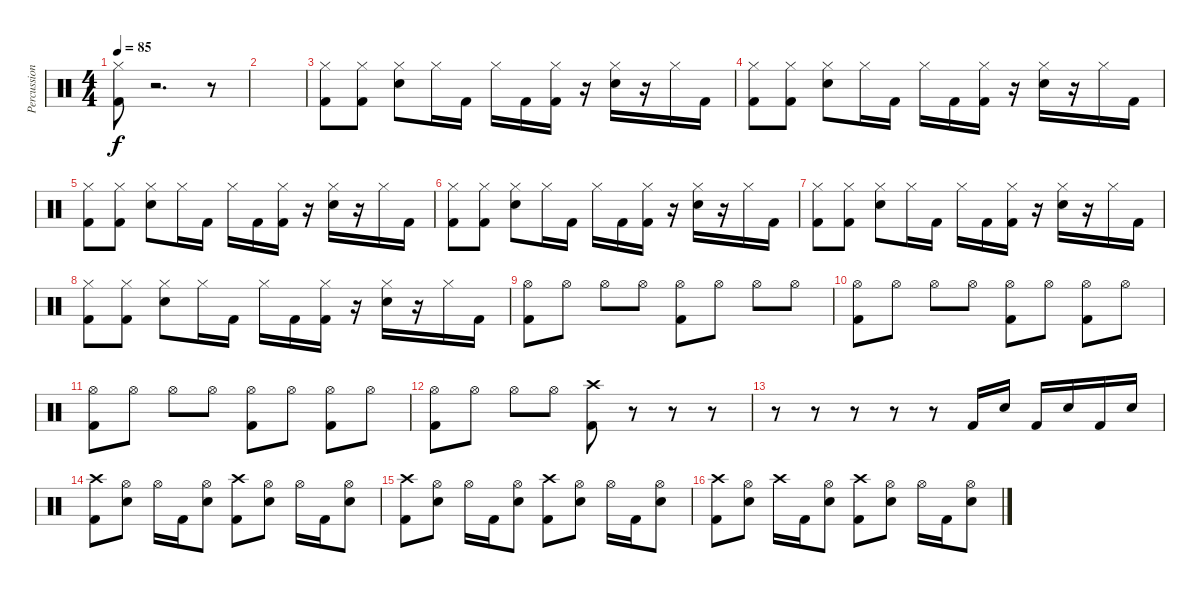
\track ("Percussion" "Percussion") {instrument percussion}
\staff {score}
\articulation defaults
\ts (4 4)
\tempo 85
\clef neutral
\ks c
("Hi-Hat (closed)" "Kick (hit) 2").8{dy f} r.2{d} r.8 |
|
("Hi-Hat (closed)" "Kick (hit) 2").8 ("Hi-Hat (closed)" "Kick (hit) 2").8 ("Hi-Hat (closed)" "Snare (hit) 2").8 "Hi-Hat (closed)".16 "Kick (hit) 2".16 "Hi-Hat (closed)".16 "Kick (hit) 2".16 ("Hi-Hat (closed)" "Kick (hit) 2").16 r.16 ("Hi-Hat (closed)" "Snare (hit) 2").16 r.16 "Hi-Hat (closed)".16 "Kick (hit) 2".16 |
("Hi-Hat (closed)" "Kick (hit) 2").8 ("Hi-Hat (closed)" "Kick (hit) 2").8 ("Hi-Hat (closed)" "Snare (hit) 2").8 "Hi-Hat (closed)".16 "Kick (hit) 2".16 "Hi-Hat (closed)".16 "Kick (hit) 2".16 ("Hi-Hat (closed)" "Kick (hit) 2").16 r.16 ("Hi-Hat (closed)" "Snare (hit) 2").16 r.16 "Hi-Hat (closed)".16 "Kick (hit) 2".16 |
("Hi-Hat (closed)" "Kick (hit) 2").8 ("Hi-Hat (closed)" "Kick (hit) 2").8 ("Hi-Hat (closed)" "Snare (hit) 2").8 "Hi-Hat (closed)".16 "Kick (hit) 2".16 "Hi-Hat (closed)".16 "Kick (hit) 2".16 ("Hi-Hat (closed)" "Kick (hit) 2").16 r.16 ("Hi-Hat (closed)" "Snare (hit) 2").16 r.16 "Hi-Hat (closed)".16 "Kick (hit) 2".16 |
("Hi-Hat (closed)" "Kick (hit) 2").8 ("Hi-Hat (closed)" "Kick (hit) 2").8 ("Hi-Hat (closed)" "Snare (hit) 2").8 "Hi-Hat (closed)".16 "Kick (hit) 2".16 "Hi-Hat (closed)".16 "Kick (hit) 2".16 ("Hi-Hat (closed)" "Kick (hit) 2").16 r.16 ("Hi-Hat (closed)" "Snare (hit) 2").16 r.16 "Hi-Hat (closed)".16 "Kick (hit) 2".16 |
("Hi-Hat (closed)" "Kick (hit) 2").8 ("Hi-Hat (closed)" "Kick (hit) 2").8 ("Hi-Hat (closed)" "Snare (hit) 2").8 "Hi-Hat (closed)".16 "Kick (hit) 2".16 "Hi-Hat (closed)".16 "Kick (hit) 2".16 ("Hi-Hat (closed)" "Kick (hit) 2").16 r.16 ("Hi-Hat (closed)" "Snare (hit) 2").16 r.16 "Hi-Hat (closed)".16 "Kick (hit) 2".16 |
("Hi-Hat (closed)" "Kick (hit) 2").8 ("Hi-Hat (closed)" "Kick (hit) 2").8 ("Hi-Hat (closed)" "Snare (hit) 2").8 "Hi-Hat (closed)".16 "Kick (hit) 2".16 "Hi-Hat (closed)".16 "Kick (hit) 2".16 ("Hi-Hat (closed)" "Kick (hit) 2").16 r.16 ("Hi-Hat (closed)" "Snare (hit) 2").16 r.16 "Hi-Hat (closed)".16 "Kick (hit) 2".16 |
("Hi-Hat (open)" "Kick (hit) 2").8 "Hi-Hat (open)".8 "Hi-Hat (open)".8 "Hi-Hat (open)".8 ("Hi-Hat (open)" "Kick (hit) 2").8 "Hi-Hat (open)".8 "Hi-Hat (open)".8 "Hi-Hat (open)".8 |
("Hi-Hat (open)" "Kick (hit) 2").8 "Hi-Hat (open)".8 "Hi-Hat (open)".8 "Hi-Hat (open)".8 ("Hi-Hat (open)" "Kick (hit) 2").8 "Hi-Hat (open)".8 ("Hi-Hat (open)" "Kick (hit) 2").8 "Hi-Hat (open)".8 |
("Hi-Hat (open)" "Kick (hit) 2").8 "Hi-Hat (open)".8 "Hi-Hat (open)".8 "Hi-Hat (open)".8 ("Hi-Hat (open)" "Kick (hit) 2").8 "Hi-Hat (open)".8 ("Hi-Hat (open)" "Kick (hit) 2").8 "Hi-Hat (open)".8 |
("Hi-Hat (open)" "Kick (hit) 2").8 "Hi-Hat (open)".8 "Hi-Hat (open)".8 "Hi-Hat (open)".8 ("Crash high (hit)" "Kick (hit) 2").8 r.8 r.8 r.8 |
r.8 r.8 r.8 r.8 r.8 "Kick (hit) 2".16 "Snare (hit) 2".16 "Kick (hit) 2".16 "Snare (hit) 2".16 "Kick (hit) 2".16 "Snare (hit) 2".16 |
("Crash high (hit)" "Kick (hit) 2").8 ("Hi-Hat (open)" "Snare (hit) 2").8 "Hi-Hat (open)".16 "Kick (hit) 2".16 ("Hi-Hat (open)" "Snare (hit) 2").8 ("Crash high (hit)" "Kick (hit) 2").8 ("Hi-Hat (open)" "Snare (hit) 2").8 "Hi-Hat (open)".16 "Kick (hit) 2".16 ("Hi-Hat (open)" "Snare (hit) 2").8 |
("Crash high (hit)" "Kick (hit) 2").8 ("Hi-Hat (open)" "Snare (hit) 2").8 "Hi-Hat (open)".16 "Kick (hit) 2".16 ("Hi-Hat (open)" "Snare (hit) 2").8 ("Crash high (hit)" "Kick (hit) 2").8 ("Hi-Hat (open)" "Snare (hit) 2").8 "Hi-Hat (open)".16 "Kick (hit) 2".16 ("Hi-Hat (open)" "Snare (hit) 2").8 |
("Crash high (hit)" "Kick (hit) 2").8 ("Hi-Hat (open)" "Snare (hit) 2").8 "Crash high (hit)".16 "Kick (hit) 2".16 ("Hi-Hat (open)" "Snare (hit) 2").8 ("Crash high (hit)" "Kick (hit) 2").8 ("Hi-Hat (open)" "Snare (hit) 2").8 "Hi-Hat (open)".16 "Kick (hit) 2".16 ("Hi-Hat (open)" "Snare (hit) 2").8
